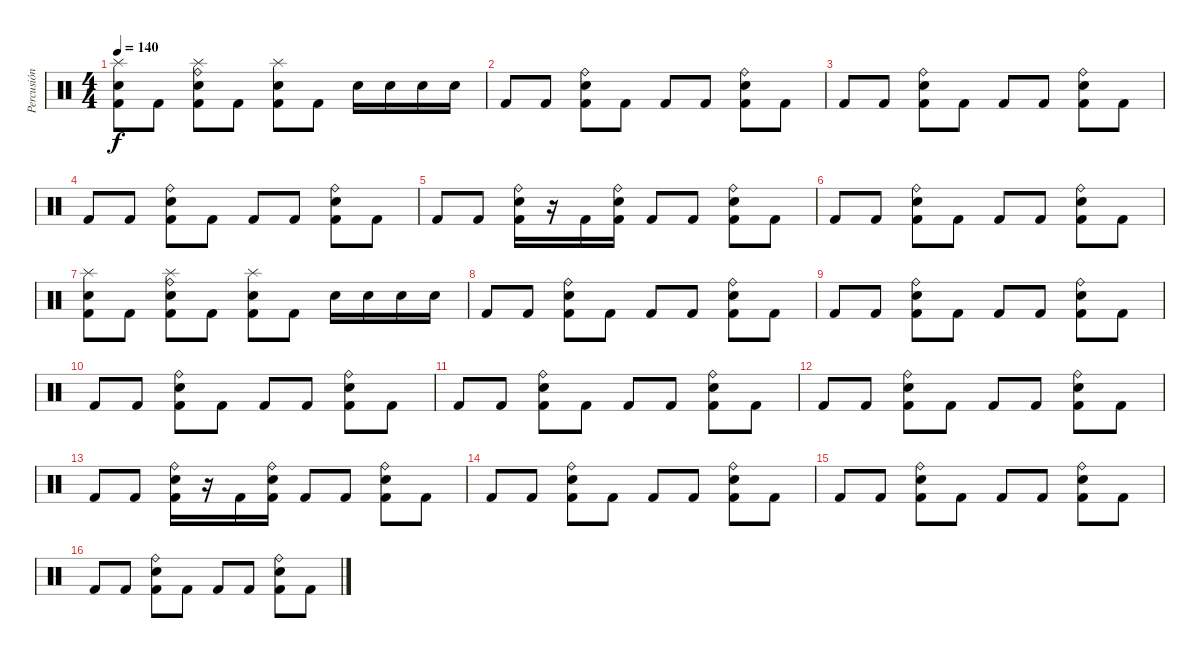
\track ("Percusión" "Percusión") {instrument percussion}
\staff {score}
\articulation defaults
\ts (4 4)
\tempo 140
\clef neutral
\ks c
("Splash (hit)" "Electric Snare (hit)" "Kick (hit) 2").8{dy f} "Kick (hit) 2".8 ("Ride (bell)" "Splash (hit)" "Electric Snare (hit)" "Kick (hit) 2").8 "Kick (hit) 2".8 ("Splash (hit)" "Electric Snare (hit)" "Kick (hit) 2").8 "Kick (hit) 2".8 "Electric Snare (hit)".16 "Electric Snare (hit)".16 "Electric Snare (hit)".16 "Electric Snare (hit)".16 |
"Kick (hit) 2".8 "Kick (hit) 2".8 ("Ride (bell)" "Electric Snare (hit)" "Kick (hit) 2").8 "Kick (hit) 2".8 "Kick (hit) 2".8 "Kick (hit) 2".8 ("Ride (bell)" "Electric Snare (hit)" "Kick (hit) 2").8 "Kick (hit) 2".8 |
"Kick (hit) 2".8 "Kick (hit) 2".8 ("Ride (bell)" "Electric Snare (hit)" "Kick (hit) 2").8 "Kick (hit) 2".8 "Kick (hit) 2".8 "Kick (hit) 2".8 ("Ride (bell)" "Electric Snare (hit)" "Kick (hit) 2").8 "Kick (hit) 2".8 |
"Kick (hit) 2".8 "Kick (hit) 2".8 ("Ride (bell)" "Electric Snare (hit)" "Kick (hit) 2").8 "Kick (hit) 2".8 "Kick (hit) 2".8 "Kick (hit) 2".8 ("Ride (bell)" "Electric Snare (hit)" "Kick (hit) 2").8 "Kick (hit) 2".8 |
"Kick (hit) 2".8 "Kick (hit) 2".8 ("Ride (bell)" "Electric Snare (hit)" "Kick (hit) 2").16 r.16 "Kick (hit) 2".16 ("Ride (bell)" "Electric Snare (hit)" "Kick (hit) 2").16 "Kick (hit) 2".8 "Kick (hit) 2".8 ("Ride (bell)" "Electric Snare (hit)" "Kick (hit) 2").8 "Kick (hit) 2".8 |
"Kick (hit) 2".8 "Kick (hit) 2".8 ("Ride (bell)" "Electric Snare (hit)" "Kick (hit) 2").8 "Kick (hit) 2".8 "Kick (hit) 2".8 "Kick (hit) 2".8 ("Ride (bell)" "Electric Snare (hit)" "Kick (hit) 2").8 "Kick (hit) 2".8 |
("Splash (hit)" "Electric Snare (hit)" "Kick (hit) 2").8 "Kick (hit) 2".8 ("Ride (bell)" "Splash (hit)" "Electric Snare (hit)" "Kick (hit) 2").8 "Kick (hit) 2".8 ("Splash (hit)" "Electric Snare (hit)" "Kick (hit) 2").8 "Kick (hit) 2".8 "Electric Snare (hit)".16 "Electric Snare (hit)".16 "Electric Snare (hit)".16 "Electric Snare (hit)".16 |
"Kick (hit) 2".8 "Kick (hit) 2".8 ("Ride (bell)" "Electric Snare (hit)" "Kick (hit) 2").8 "Kick (hit) 2".8 "Kick (hit) 2".8 "Kick (hit) 2".8 ("Ride (bell)" "Electric Snare (hit)" "Kick (hit) 2").8 "Kick (hit) 2".8 |
"Kick (hit) 2".8 "Kick (hit) 2".8 ("Ride (bell)" "Electric Snare (hit)" "Kick (hit) 2").8 "Kick (hit) 2".8 "Kick (hit) 2".8 "Kick (hit) 2".8 ("Ride (bell)" "Electric Snare (hit)" "Kick (hit) 2").8 "Kick (hit) 2".8 |
"Kick (hit) 2".8 "Kick (hit) 2".8 ("Ride (bell)" "Electric Snare (hit)" "Kick (hit) 2").8 "Kick (hit) 2".8 "Kick (hit) 2".8 "Kick (hit) 2".8 ("Ride (bell)" "Electric Snare (hit)" "Kick (hit) 2").8 "Kick (hit) 2".8 |
"Kick (hit) 2".8 "Kick (hit) 2".8 ("Ride (bell)" "Electric Snare (hit)" "Kick (hit) 2").8 "Kick (hit) 2".8 "Kick (hit) 2".8 "Kick (hit) 2".8 ("Ride (bell)" "Electric Snare (hit)" "Kick (hit) 2").8 "Kick (hit) 2".8 |
"Kick (hit) 2".8 "Kick (hit) 2".8 ("Ride (bell)" "Electric Snare (hit)" "Kick (hit) 2").8 "Kick (hit) 2".8 "Kick (hit) 2".8 "Kick (hit) 2".8 ("Ride (bell)" "Electric Snare (hit)" "Kick (hit) 2").8 "Kick (hit) 2".8 |
"Kick (hit) 2".8 "Kick (hit) 2".8 ("Ride (bell)" "Electric Snare (hit)" "Kick (hit) 2").16 r.16 "Kick (hit) 2".16 ("Ride (bell)" "Electric Snare (hit)" "Kick (hit) 2").16 "Kick (hit) 2".8 "Kick (hit) 2".8 ("Ride (bell)" "Electric Snare (hit)" "Kick (hit) 2").8 "Kick (hit) 2".8 |
"Kick (hit) 2".8 "Kick (hit) 2".8 ("Ride (bell)" "Electric Snare (hit)" "Kick (hit) 2").8 "Kick (hit) 2".8 "Kick (hit) 2".8 "Kick (hit) 2".8 ("Ride (bell)" "Electric Snare (hit)" "Kick (hit) 2").8 "Kick (hit) 2".8 |
"Kick (hit) 2".8 "Kick (hit) 2".8 ("Ride (bell)" "Electric Snare (hit)" "Kick (hit) 2").8 "Kick (hit) 2".8 "Kick (hit) 2".8 "Kick (hit) 2".8 ("Ride (bell)" "Electric Snare (hit)" "Kick (hit) 2").8 "Kick (hit) 2".8 |
"Kick (hit) 2".8 "Kick (hit) 2".8 ("Ride (bell)" "Electric Snare (hit)" "Kick (hit) 2").8 "Kick (hit) 2".8 "Kick (hit) 2".8 "Kick (hit) 2".8 ("Ride (bell)" "Electric Snare (hit)" "Kick (hit) 2").8 "Kick (hit) 2".8
